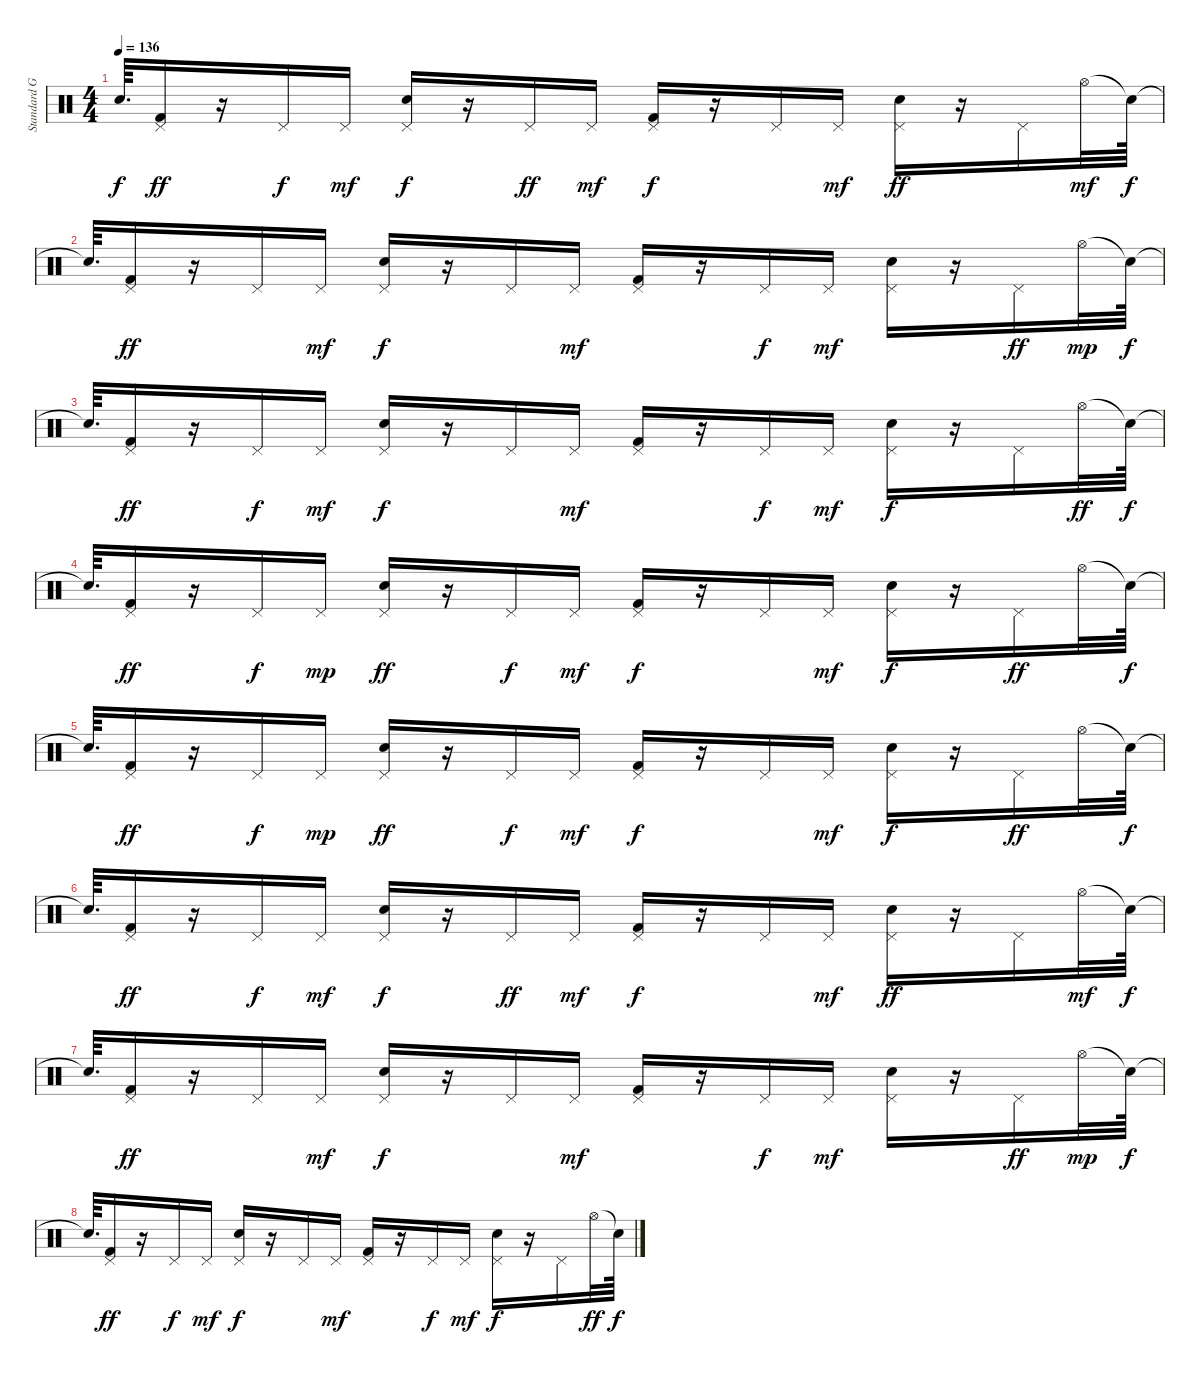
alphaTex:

\track ("Standard GM Drum Kit" "Standard G") {instrument percussion}
\staff {score}
\articulation defaults
\ts (4 4)
\tempo 136
\clef neutral
\ks c "Snare (hit)"{t}.64{d dy f}
("Pedal Hi-Hat (hit)" "Kick (hit) 2").16{dy ff} r.16 "Pedal Hi-Hat (hit)".16{dy f} "Pedal Hi-Hat (hit)".16{dy mf} ("Pedal Hi-Hat (hit)" "Electric Snare (hit)").16{dy f} r.16 "Pedal Hi-Hat (hit)".16{dy ff} "Pedal Hi-Hat (hit)".16{dy mf} ("Kick (hit) 2" "Pedal Hi-Hat (hit)").16{dy f} r.16 "Pedal Hi-Hat (hit)".16 "Pedal Hi-Hat (hit)".16{dy mf} ("Electric Snare (hit)" "Pedal Hi-Hat (hit)").16{dy ff} r.16 "Pedal Hi-Hat (hit)".16 "Hi-Hat (open)".32{dy mf} "Snare (hit)"{t}.64{dy f} |
"Snare (hit)"{t}.64{d} ("Pedal Hi-Hat (hit)" "Kick (hit) 2").16{dy ff} r.16 "Pedal Hi-Hat (hit)".16 "Pedal Hi-Hat (hit)".16{dy mf} ("Pedal Hi-Hat (hit)" "Electric Snare (hit)").16{dy f} r.16 "Pedal Hi-Hat (hit)".16 "Pedal Hi-Hat (hit)".16{dy mf} ("Kick (hit) 2" "Pedal Hi-Hat (hit)").16 r.16 "Pedal Hi-Hat (hit)".16{dy f} "Pedal Hi-Hat (hit)".16{dy mf} ("Electric Snare (hit)" "Pedal Hi-Hat (hit)").16 r.16 "Pedal Hi-Hat (hit)".16{dy ff} "Hi-Hat (open)".32{dy mp} "Snare (hit)"{t}.64{dy f} |
"Snare (hit)"{t}.64{d} ("Pedal Hi-Hat (hit)" "Kick (hit) 2").16{dy ff} r.16 "Pedal Hi-Hat (hit)".16{dy f} "Pedal Hi-Hat (hit)".16{dy mf} ("Pedal Hi-Hat (hit)" "Electric Snare (hit)").16{dy f} r.16 "Pedal Hi-Hat (hit)".16 "Pedal Hi-Hat (hit)".16{dy mf} ("Pedal Hi-Hat (hit)" "Kick (hit) 2").16 r.16 "Pedal Hi-Hat (hit)".16{dy f} "Pedal Hi-Hat (hit)".16{dy mf} ("Pedal Hi-Hat (hit)" "Electric Snare (hit)").16{dy f} r.16 "Pedal Hi-Hat (hit)".16 "Hi-Hat (open)".32{dy ff} "Snare (hit)"{t}.64{dy f} |
"Snare (hit)"{t}.64{d} ("Pedal Hi-Hat (hit)" "Kick (hit) 2").16{dy ff} r.16 "Pedal Hi-Hat (hit)".16{dy f} "Pedal Hi-Hat (hit)".16{dy mp} ("Pedal Hi-Hat (hit)" "Electric Snare (hit)").16{dy ff} r.16 "Pedal Hi-Hat (hit)".16{dy f} "Pedal Hi-Hat (hit)".16{dy mf} ("Kick (hit) 2" "Pedal Hi-Hat (hit)").16{dy f} r.16 "Pedal Hi-Hat (hit)".16 "Pedal Hi-Hat (hit)".16{dy mf} ("Electric Snare (hit)" "Pedal Hi-Hat (hit)").16{dy f} r.16 "Pedal Hi-Hat (hit)".16{dy ff} "Hi-Hat (open)".32 "Snare (hit)"{t}.64{dy f} |
"Snare (hit)"{t}.64{d} ("Pedal Hi-Hat (hit)" "Kick (hit) 2").16{dy ff} r.16 "Pedal Hi-Hat (hit)".16{dy f} "Pedal Hi-Hat (hit)".16{dy mp} ("Pedal Hi-Hat (hit)" "Electric Snare (hit)").16{dy ff} r.16 "Pedal Hi-Hat (hit)".16{dy f} "Pedal Hi-Hat (hit)".16{dy mf} ("Kick (hit) 2" "Pedal Hi-Hat (hit)").16{dy f} r.16 "Pedal Hi-Hat (hit)".16 "Pedal Hi-Hat (hit)".16{dy mf} ("Electric Snare (hit)" "Pedal Hi-Hat (hit)").16{dy f} r.16 "Pedal Hi-Hat (hit)".16{dy ff} "Hi-Hat (open)".32 "Snare (hit)"{t}.64{dy f} |
"Snare (hit)"{t}.64{d} ("Pedal Hi-Hat (hit)" "Kick (hit) 2").16{dy ff} r.16 "Pedal Hi-Hat (hit)".16{dy f} "Pedal Hi-Hat (hit)".16{dy mf} ("Pedal Hi-Hat (hit)" "Electric Snare (hit)").16{dy f} r.16 "Pedal Hi-Hat (hit)".16{dy ff} "Pedal Hi-Hat (hit)".16{dy mf} ("Kick (hit) 2" "Pedal Hi-Hat (hit)").16{dy f} r.16 "Pedal Hi-Hat (hit)".16 "Pedal Hi-Hat (hit)".16{dy mf} ("Electric Snare (hit)" "Pedal Hi-Hat (hit)").16{dy ff} r.16 "Pedal Hi-Hat (hit)".16 "Hi-Hat (open)".32{dy mf} "Snare (hit)"{t}.64{dy f} |
"Snare (hit)"{t}.64{d} ("Pedal Hi-Hat (hit)" "Kick (hit) 2").16{dy ff} r.16 "Pedal Hi-Hat (hit)".16 "Pedal Hi-Hat (hit)".16{dy mf} ("Pedal Hi-Hat (hit)" "Electric Snare (hit)").16{dy f} r.16 "Pedal Hi-Hat (hit)".16 "Pedal Hi-Hat (hit)".16{dy mf} ("Kick (hit) 2" "Pedal Hi-Hat (hit)").16 r.16 "Pedal Hi-Hat (hit)".16{dy f} "Pedal Hi-Hat (hit)".16{dy mf} ("Electric Snare (hit)" "Pedal Hi-Hat (hit)").16 r.16 "Pedal Hi-Hat (hit)".16{dy ff} "Hi-Hat (open)".32{dy mp} "Snare (hit)"{t}.64{dy f} |
"Snare (hit)"{t}.64{d} ("Pedal Hi-Hat (hit)" "Kick (hit) 2").16{dy ff} r.16 "Pedal Hi-Hat (hit)".16{dy f} "Pedal Hi-Hat (hit)".16{dy mf} ("Pedal Hi-Hat (hit)" "Electric Snare (hit)").16{dy f} r.16 "Pedal Hi-Hat (hit)".16 "Pedal Hi-Hat (hit)".16{dy mf} ("Pedal Hi-Hat (hit)" "Kick (hit) 2").16 r.16 "Pedal Hi-Hat (hit)".16{dy f} "Pedal Hi-Hat (hit)".16{dy mf} ("Pedal Hi-Hat (hit)" "Electric Snare (hit)").16{dy f} r.16 "Pedal Hi-Hat (hit)".16 "Hi-Hat (open)".32{dy ff} "Snare (hit)"{t}.64{dy f}
